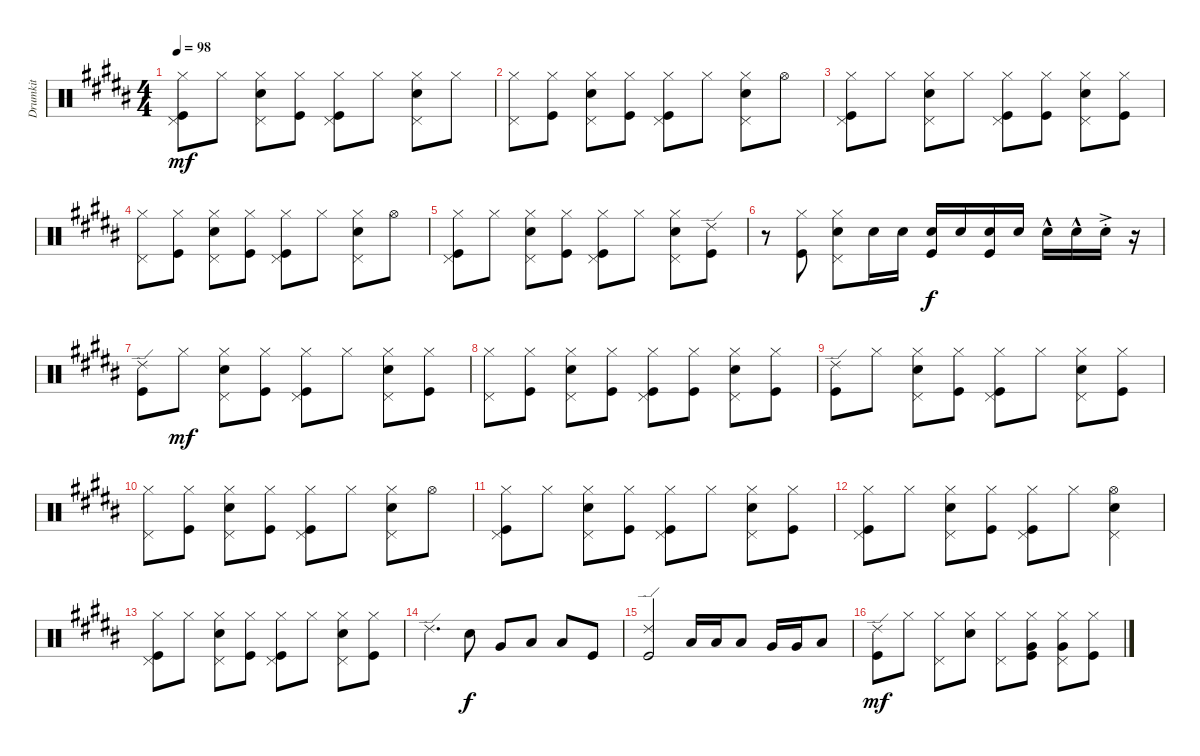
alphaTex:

\track ("Drumkit" "Drumkit") {instrument percussion}
\staff {score}
\articulation defaults
\ts (4 4)
\tempo 98
\clef neutral
\ks b
("Kick (hit)" "Hi-Hat (closed)" "Pedal Hi-Hat (hit)").8{dy mf} "Hi-Hat (closed)".8 ("Hi-Hat (closed)" "Pedal Hi-Hat (hit)" "Snare (hit) 2").8 ("Kick (hit)" "Hi-Hat (closed)").8 ("Hi-Hat (closed)" "Pedal Hi-Hat (hit)" "Kick (hit)").8 "Hi-Hat (closed)".8 ("Snare (hit) 2" "Pedal Hi-Hat (hit)" "Hi-Hat (closed)").8 "Hi-Hat (closed)".8 |
("Hi-Hat (closed)" "Pedal Hi-Hat (hit)").8 ("Hi-Hat (closed)" "Kick (hit)").8 ("Snare (hit) 2" "Hi-Hat (closed)" "Pedal Hi-Hat (hit)").8 ("Kick (hit)" "Hi-Hat (closed)").8 ("Hi-Hat (closed)" "Kick (hit)" "Pedal Hi-Hat (hit)").8 "Hi-Hat (closed)".8 ("Snare (hit) 2" "Hi-Hat (closed)" "Pedal Hi-Hat (hit)").8 "Hi-Hat (open)".8 |
("Kick (hit)" "Hi-Hat (closed)" "Pedal Hi-Hat (hit)").8 "Hi-Hat (closed)".8 ("Hi-Hat (closed)" "Pedal Hi-Hat (hit)" "Snare (hit) 2").8 "Hi-Hat (closed)".8 ("Kick (hit)" "Hi-Hat (closed)" "Pedal Hi-Hat (hit)").8 ("Hi-Hat (closed)" "Kick (hit)").8 ("Snare (hit) 2" "Pedal Hi-Hat (hit)" "Hi-Hat (closed)").8 ("Hi-Hat (closed)" "Kick (hit)").8 |
("Hi-Hat (closed)" "Pedal Hi-Hat (hit)").8 ("Hi-Hat (closed)" "Kick (hit)").8 ("Snare (hit) 2" "Hi-Hat (closed)" "Pedal Hi-Hat (hit)").8 ("Kick (hit)" "Hi-Hat (closed)").8 ("Hi-Hat (closed)" "Kick (hit)" "Pedal Hi-Hat (hit)").8 "Hi-Hat (closed)".8 ("Snare (hit) 2" "Hi-Hat (closed)" "Pedal Hi-Hat (hit)").8 "Hi-Hat (open)".8 |
("Kick (hit)" "Hi-Hat (closed)" "Pedal Hi-Hat (hit)").8 "Hi-Hat (closed)".8 ("Hi-Hat (closed)" "Pedal Hi-Hat (hit)" "Snare (hit) 2").8 ("Kick (hit)" "Hi-Hat (closed)").8 ("Hi-Hat (closed)" "Pedal Hi-Hat (hit)" "Kick (hit)").8 "Hi-Hat (closed)".8 ("Snare (hit) 2" "Pedal Hi-Hat (hit)" "Hi-Hat (closed)").8 ("Ride (edge) 2" "Kick (hit)").8 |
r.8 ("Kick (hit)" "Hi-Hat (closed)").8 ("Snare (hit) 2" "Pedal Hi-Hat (hit)" "Hi-Hat (closed)").8 "Snare (hit) 2".16 "Snare (hit) 2".16 ("Snare (hit) 2" "Kick (hit)").16{dy f} "Snare (hit) 2".16 ("Snare (hit) 2" "Kick (hit)").16 "Snare (hit) 2".16 "Snare (hit) 2"{hac}.16 "Snare (hit) 2"{hac}.16 "Snare (hit) 2"{ac st}.16 r.16 |
("Kick (hit)" "Ride (edge) 2").8 "Hi-Hat (closed)".8{dy mf} ("Hi-Hat (closed)" "Pedal Hi-Hat (hit)" "Snare (hit) 2").8 ("Kick (hit)" "Hi-Hat (closed)").8 ("Hi-Hat (closed)" "Pedal Hi-Hat (hit)" "Kick (hit)").8 "Hi-Hat (closed)".8 ("Snare (hit) 2" "Pedal Hi-Hat (hit)" "Hi-Hat (closed)").8 ("Hi-Hat (closed)" "Kick (hit)").8 |
("Hi-Hat (closed)" "Pedal Hi-Hat (hit)").8 ("Hi-Hat (closed)" "Kick (hit)").8 ("Snare (hit) 2" "Hi-Hat (closed)" "Pedal Hi-Hat (hit)").8 ("Kick (hit)" "Hi-Hat (closed)").8 ("Hi-Hat (closed)" "Kick (hit)" "Pedal Hi-Hat (hit)").8 ("Hi-Hat (closed)" "Kick (hit)").8 ("Snare (hit) 2" "Hi-Hat (closed)" "Pedal Hi-Hat (hit)").8 ("Hi-Hat (closed)" "Kick (hit)").8 |
("Kick (hit)" "Ride (edge) 2").8 "Hi-Hat (closed)".8 ("Hi-Hat (closed)" "Pedal Hi-Hat (hit)" "Snare (hit) 2").8 ("Kick (hit)" "Hi-Hat (closed)").8 ("Hi-Hat (closed)" "Pedal Hi-Hat (hit)" "Kick (hit)").8 "Hi-Hat (closed)".8 ("Snare (hit) 2" "Pedal Hi-Hat (hit)" "Hi-Hat (closed)").8 ("Hi-Hat (closed)" "Kick (hit)").8 |
("Hi-Hat (closed)" "Pedal Hi-Hat (hit)").8 ("Hi-Hat (closed)" "Kick (hit)").8 ("Snare (hit) 2" "Hi-Hat (closed)" "Pedal Hi-Hat (hit)").8 ("Kick (hit)" "Hi-Hat (closed)").8 ("Hi-Hat (closed)" "Kick (hit)" "Pedal Hi-Hat (hit)").8 "Hi-Hat (closed)".8 ("Snare (hit) 2" "Hi-Hat (closed)" "Pedal Hi-Hat (hit)").8 "Hi-Hat (open)".8 |
("Kick (hit)" "Hi-Hat (closed)" "Pedal Hi-Hat (hit)").8 "Hi-Hat (closed)".8 ("Hi-Hat (closed)" "Pedal Hi-Hat (hit)" "Snare (hit) 2").8 ("Kick (hit)" "Hi-Hat (closed)").8 ("Hi-Hat (closed)" "Pedal Hi-Hat (hit)" "Kick (hit)").8 "Hi-Hat (closed)".8 ("Snare (hit) 2" "Pedal Hi-Hat (hit)" "Hi-Hat (closed)").8 ("Hi-Hat (closed)" "Kick (hit)").8 |
("Kick (hit)" "Hi-Hat (closed)" "Pedal Hi-Hat (hit)").8 "Hi-Hat (closed)".8 ("Hi-Hat (closed)" "Pedal Hi-Hat (hit)" "Snare (hit) 2").8 ("Kick (hit)" "Hi-Hat (closed)").8 ("Hi-Hat (closed)" "Pedal Hi-Hat (hit)" "Kick (hit)").8 "Hi-Hat (closed)".8 ("Snare (hit) 2" "Pedal Hi-Hat (hit)" "Hi-Hat (open)").4 |
("Kick (hit)" "Hi-Hat (closed)" "Pedal Hi-Hat (hit)").8 "Hi-Hat (closed)".8 ("Hi-Hat (closed)" "Pedal Hi-Hat (hit)" "Snare (hit) 2").8 ("Kick (hit)" "Hi-Hat (closed)").8 ("Hi-Hat (closed)" "Pedal Hi-Hat (hit)" "Kick (hit)").8 "Hi-Hat (closed)".8 ("Snare (hit) 2" "Pedal Hi-Hat (hit)" "Hi-Hat (closed)").8 ("Hi-Hat (closed)" "Kick (hit)").8 |
"Ride (edge) 2".4{d} "Snare (hit) 2".8{dy f} "Very Low Tom (hit)".8 "Low Floor Tom (hit)".8 "Low Floor Tom (hit)".8 "Kick (hit)".8 |
("Kick (hit)" "Ride (edge) 2").2 "Low Tom (hit)".16 "Low Tom (hit)".16 "Low Tom (hit)".8 "Very Low Tom (hit)".16 "Very Low Tom (hit)".16 "Low Floor Tom (hit)".8 |
("Kick (hit)" "Ride (edge) 2").8{dy mf} "Hi-Hat (closed)".8 ("Hi-Hat (closed)" "Pedal Hi-Hat (hit)").8 ("Snare (hit) 2" "Hi-Hat (closed)").8 ("Hi-Hat (closed)" "Pedal Hi-Hat (hit)").8 ("Hi-Hat (closed)" "Very Low Tom (hit)" "Kick (hit)").8 ("Very Low Tom (hit)" "Hi-Hat (closed)" "Pedal Hi-Hat (hit)").8 ("Kick (hit)" "Hi-Hat (closed)").8
